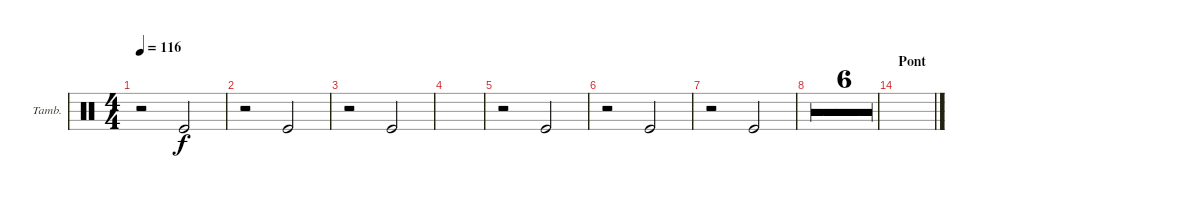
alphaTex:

\bracketExtendMode groupsimilarinstruments
\firstSystemTrackNameOrientation horizontal
\otherSystemsTrackNameOrientation horizontal
\track ("Ray Cooper" "Tamb.") {multiBarRest instrument percussion}
\staff {score}
\articulation defaults
\ts (4 4)
\tempo 116
\clef neutral
\ks c
r.2{dy f} "Kick (hit)".2 |
r.2 "Kick (hit)".2 |
r.2 "Kick (hit)".2 |
|
r.2 "Kick (hit)".2 |
r.2 "Kick (hit)".2 |
r.2 "Kick (hit)".2 |
|
|
|
|
|
|
\section ("" "Pont")
